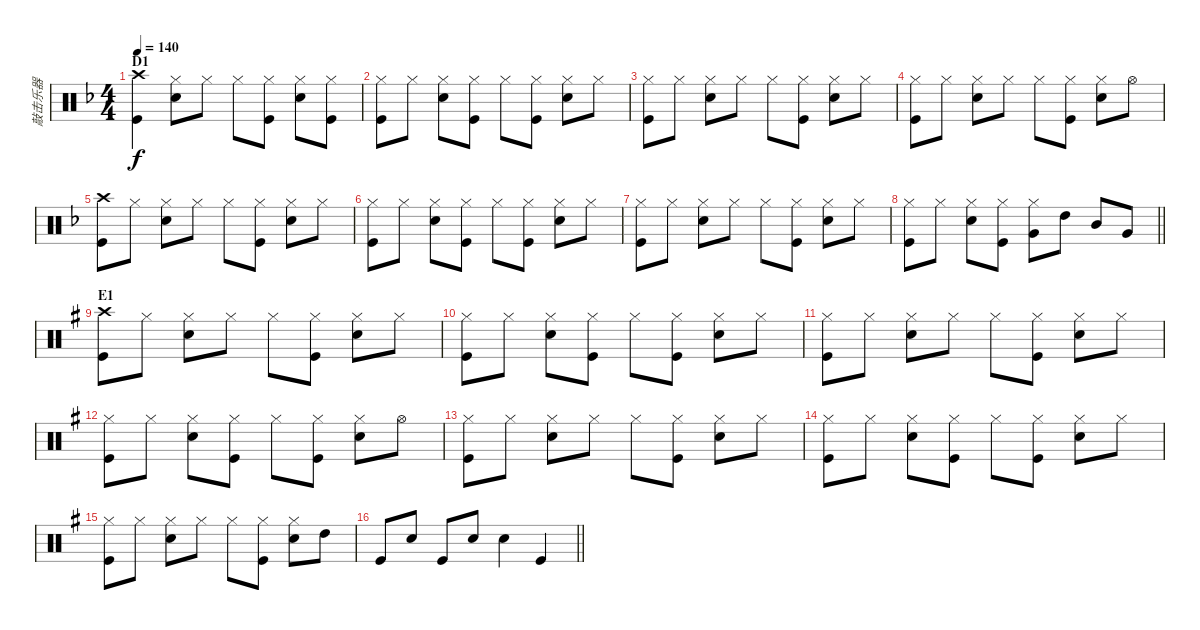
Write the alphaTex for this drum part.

\track ("敲击乐器" "敲击乐器") {instrument percussion}
\staff {score}
\articulation defaults
\ts (4 4)
\section ("" "D1")
\tempo 140
\clef neutral
\ks f
("Crash high (hit)" "Kick (hit)").4{dy f} ("Hi-Hat (closed)" "Snare (hit) 2").8 "Hi-Hat (closed)".8 "Hi-Hat (closed)".8 ("Hi-Hat (closed)" "Kick (hit)").8 ("Hi-Hat (closed)" "Snare (hit) 2").8 ("Hi-Hat (closed)" "Kick (hit)").8 |
("Hi-Hat (closed)" "Kick (hit)").8 "Hi-Hat (closed)".8 ("Hi-Hat (closed)" "Snare (hit) 2").8 ("Hi-Hat (closed)" "Kick (hit)").8 "Hi-Hat (closed)".8 ("Hi-Hat (closed)" "Kick (hit)").8 ("Hi-Hat (closed)" "Snare (hit) 2").8 "Hi-Hat (closed)".8 |
("Hi-Hat (closed)" "Kick (hit)").8 "Hi-Hat (closed)".8 ("Hi-Hat (closed)" "Snare (hit) 2").8 "Hi-Hat (closed)".8 "Hi-Hat (closed)".8 ("Hi-Hat (closed)" "Kick (hit)").8 ("Hi-Hat (closed)" "Snare (hit) 2").8 "Hi-Hat (closed)".8 |
("Hi-Hat (closed)" "Kick (hit)").8 "Hi-Hat (closed)".8 ("Hi-Hat (closed)" "Snare (hit) 2").8 "Hi-Hat (closed)".8 "Hi-Hat (closed)".8 ("Hi-Hat (closed)" "Kick (hit)").8 ("Hi-Hat (closed)" "Snare (hit) 2").8 "Hi-Hat (open)".8 |
("Crash high (hit)" "Kick (hit)").8 "Hi-Hat (closed)".8 ("Hi-Hat (closed)" "Snare (hit) 2").8 "Hi-Hat (closed)".8 "Hi-Hat (closed)".8 ("Hi-Hat (closed)" "Kick (hit)").8 ("Hi-Hat (closed)" "Snare (hit) 2").8 "Hi-Hat (closed)".8 |
("Hi-Hat (closed)" "Kick (hit)").8 "Hi-Hat (closed)".8 ("Hi-Hat (closed)" "Snare (hit) 2").8 ("Hi-Hat (closed)" "Kick (hit)").8 "Hi-Hat (closed)".8 ("Hi-Hat (closed)" "Kick (hit)").8 ("Hi-Hat (closed)" "Snare (hit) 2").8 "Hi-Hat (closed)".8 |
("Hi-Hat (closed)" "Kick (hit)").8 "Hi-Hat (closed)".8 ("Hi-Hat (closed)" "Snare (hit) 2").8 "Hi-Hat (closed)".8 "Hi-Hat (closed)".8 ("Hi-Hat (closed)" "Kick (hit)").8 ("Hi-Hat (closed)" "Snare (hit) 2").8 "Hi-Hat (closed)".8 |
\barLineRight lightlight
("Hi-Hat (closed)" "Kick (hit)").8 "Hi-Hat (closed)".8 ("Hi-Hat (closed)" "Snare (hit) 2").8 ("Hi-Hat (closed)" "Kick (hit)").8 ("Hi-Hat (closed)" "Very Low Tom (hit)").8 "High Tom (hit)".8 "Mid Tom (hit)".8 "Very Low Tom (hit)".8 |
\section ("" "E1")
\ks g
("Crash high (hit)" "Kick (hit)").8 "Hi-Hat (closed)".8 ("Hi-Hat (closed)" "Snare (hit) 2").8 "Hi-Hat (closed)".8 "Hi-Hat (closed)".8 ("Hi-Hat (closed)" "Kick (hit)").8 ("Hi-Hat (closed)" "Snare (hit) 2").8 "Hi-Hat (closed)".8 |
("Hi-Hat (closed)" "Kick (hit)").8 "Hi-Hat (closed)".8 ("Hi-Hat (closed)" "Snare (hit) 2").8 ("Hi-Hat (closed)" "Kick (hit)").8 "Hi-Hat (closed)".8 ("Hi-Hat (closed)" "Kick (hit)").8 ("Hi-Hat (closed)" "Snare (hit) 2").8 "Hi-Hat (closed)".8 |
("Hi-Hat (closed)" "Kick (hit)").8 "Hi-Hat (closed)".8 ("Hi-Hat (closed)" "Snare (hit) 2").8 "Hi-Hat (closed)".8 "Hi-Hat (closed)".8 ("Hi-Hat (closed)" "Kick (hit)").8 ("Hi-Hat (closed)" "Snare (hit) 2").8 "Hi-Hat (closed)".8 |
("Hi-Hat (closed)" "Kick (hit)").8 "Hi-Hat (closed)".8 ("Hi-Hat (closed)" "Snare (hit) 2").8 ("Hi-Hat (closed)" "Kick (hit)").8 "Hi-Hat (closed)".8 ("Hi-Hat (closed)" "Kick (hit)").8 ("Hi-Hat (closed)" "Snare (hit) 2").8 "Hi-Hat (open)".8 |
("Hi-Hat (closed)" "Kick (hit)").8 "Hi-Hat (closed)".8 ("Hi-Hat (closed)" "Snare (hit) 2").8 "Hi-Hat (closed)".8 "Hi-Hat (closed)".8 ("Hi-Hat (closed)" "Kick (hit)").8 ("Hi-Hat (closed)" "Snare (hit) 2").8 "Hi-Hat (closed)".8 |
("Hi-Hat (closed)" "Kick (hit)").8 "Hi-Hat (closed)".8 ("Hi-Hat (closed)" "Snare (hit) 2").8 ("Hi-Hat (closed)" "Kick (hit)").8 "Hi-Hat (closed)".8 ("Hi-Hat (closed)" "Kick (hit)").8 ("Hi-Hat (closed)" "Snare (hit) 2").8 "Hi-Hat (closed)".8 |
("Hi-Hat (closed)" "Kick (hit)").8 "Hi-Hat (closed)".8 ("Hi-Hat (closed)" "Snare (hit) 2").8 "Hi-Hat (closed)".8 "Hi-Hat (closed)".8 ("Hi-Hat (closed)" "Kick (hit)").8 ("Hi-Hat (closed)" "Snare (hit) 2").8 "High Tom (hit)".8 |
\barLineRight lightlight "Kick (hit)".8 "Snare (hit) 2".8 "Kick (hit)".8 "Snare (hit) 2".8 "Snare (hit) 2".4 "Kick (hit)".4
